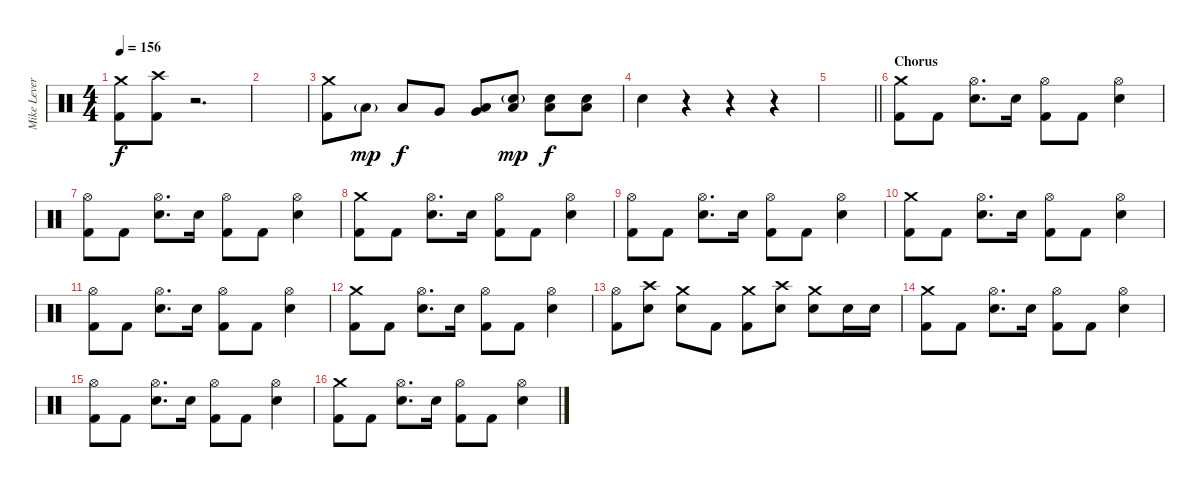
\track ("Mike Leverence - Drums" "Mike Lever") {instrument percussion}
\staff {score}
\articulation defaults
\ts (4 4)
\tempo 156
\clef neutral
\ks c
("Crash medium (hit)" "Kick (hit) 2").8{dy f} ("Crash high (hit)" "Kick (hit) 2").8 r.2{d} |
|
("Crash medium (hit)" "Kick (hit) 2").8 "Low Floor Tom (hit)"{g}.8{dy mp} "Low Floor Tom (hit)".8{dy f} "Very Low Tom (hit)".8 ("Low Tom (hit)" "Very Low Tom (hit)").8 ("Electric Snare (hit)"{g} "Low Tom (hit)").8{dy mp} ("Electric Snare (hit)" "Low Tom (hit)").8{dy f} ("Electric Snare (hit)" "Low Tom (hit)").8 |
"Electric Snare (hit)".4 r.4 r.4 r.4 |
\barLineRight lightlight
|
\section ("" "Chorus")
("Crash medium (hit)" "Kick (hit) 2").8 "Kick (hit) 2".8 ("Hi-Hat (open)" "Electric Snare (hit)").8{d} "Electric Snare (hit)".16 ("Hi-Hat (open)" "Kick (hit) 2").8 "Kick (hit) 2".8 ("Hi-Hat (open)" "Electric Snare (hit)").4 |
("Hi-Hat (open)" "Kick (hit) 2").8 "Kick (hit) 2".8 ("Hi-Hat (open)" "Electric Snare (hit)").8{d} "Electric Snare (hit)".16 ("Hi-Hat (open)" "Kick (hit) 2").8 "Kick (hit) 2".8 ("Hi-Hat (open)" "Electric Snare (hit)").4 |
("Crash medium (hit)" "Kick (hit) 2").8 "Kick (hit) 2".8 ("Hi-Hat (open)" "Electric Snare (hit)").8{d} "Electric Snare (hit)".16 ("Hi-Hat (open)" "Kick (hit) 2").8 "Kick (hit) 2".8 ("Hi-Hat (open)" "Electric Snare (hit)").4 |
("Hi-Hat (open)" "Kick (hit) 2").8 "Kick (hit) 2".8 ("Hi-Hat (open)" "Electric Snare (hit)").8{d} "Electric Snare (hit)".16 ("Hi-Hat (open)" "Kick (hit) 2").8 "Kick (hit) 2".8 ("Hi-Hat (open)" "Electric Snare (hit)").4 |
("Crash medium (hit)" "Kick (hit) 2").8 "Kick (hit) 2".8 ("Hi-Hat (open)" "Electric Snare (hit)").8{d} "Electric Snare (hit)".16 ("Hi-Hat (open)" "Kick (hit) 2").8 "Kick (hit) 2".8 ("Hi-Hat (open)" "Electric Snare (hit)").4 |
("Hi-Hat (open)" "Kick (hit) 2").8 "Kick (hit) 2".8 ("Hi-Hat (open)" "Electric Snare (hit)").8{d} "Electric Snare (hit)".16 ("Hi-Hat (open)" "Kick (hit) 2").8 "Kick (hit) 2".8 ("Hi-Hat (open)" "Electric Snare (hit)").4 |
("Crash medium (hit)" "Kick (hit) 2").8 "Kick (hit) 2".8 ("Hi-Hat (open)" "Electric Snare (hit)").8{d} "Electric Snare (hit)".16 ("Hi-Hat (open)" "Kick (hit) 2").8 "Kick (hit) 2".8 ("Hi-Hat (open)" "Electric Snare (hit)").4 |
("Hi-Hat (open)" "Kick (hit) 2").8 ("Crash high (hit)" "Electric Snare (hit)").8 ("Crash medium (hit)" "Electric Snare (hit)").8 "Kick (hit) 2".8 ("Crash medium (hit)" "Kick (hit) 2").8 ("Crash high (hit)" "Electric Snare (hit)").8 ("Crash medium (hit)" "Electric Snare (hit)").8 "Electric Snare (hit)".16 "Electric Snare (hit)".16 |
("Crash medium (hit)" "Kick (hit) 2").8 "Kick (hit) 2".8 ("Hi-Hat (open)" "Electric Snare (hit)").8{d} "Electric Snare (hit)".16 ("Hi-Hat (open)" "Kick (hit) 2").8 "Kick (hit) 2".8 ("Hi-Hat (open)" "Electric Snare (hit)").4 |
("Hi-Hat (open)" "Kick (hit) 2").8 "Kick (hit) 2".8 ("Hi-Hat (open)" "Electric Snare (hit)").8{d} "Electric Snare (hit)".16 ("Hi-Hat (open)" "Kick (hit) 2").8 "Kick (hit) 2".8 ("Hi-Hat (open)" "Electric Snare (hit)").4 |
("Crash medium (hit)" "Kick (hit) 2").8 "Kick (hit) 2".8 ("Hi-Hat (open)" "Electric Snare (hit)").8{d} "Electric Snare (hit)".16 ("Hi-Hat (open)" "Kick (hit) 2").8 "Kick (hit) 2".8 ("Hi-Hat (open)" "Electric Snare (hit)").4
